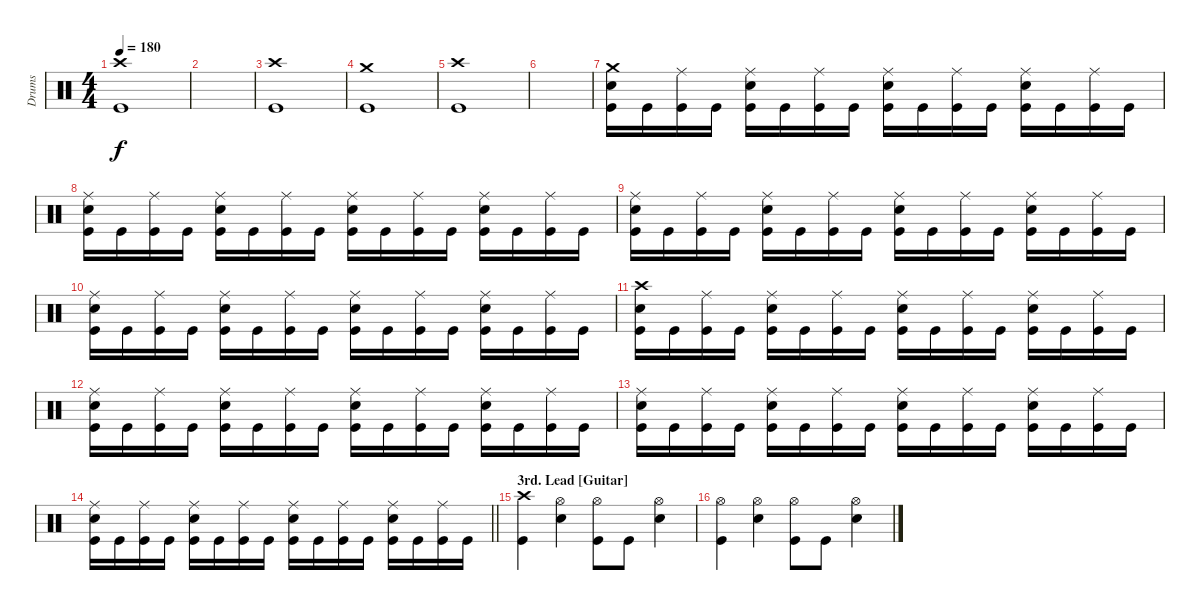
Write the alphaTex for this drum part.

\track ("Drums" "Drums") {instrument percussion}
\staff {score}
\articulation defaults
\ts (4 4)
\tempo 180
\clef neutral
\ks c
("Crash high (hit)" "Kick (hit)").1{dy f} |
|
("Crash high (hit)" "Kick (hit)").1 |
("Crash medium (hit)" "Kick (hit)").1 |
("Crash high (hit)" "Kick (hit)").1 |
|
("Crash medium (hit)" "Electric Snare (hit)" "Kick (hit)").16 "Kick (hit)".16 ("Ride (middle)" "Kick (hit)").16 "Kick (hit)".16 ("Ride (middle)" "Electric Snare (hit)" "Kick (hit)").16 "Kick (hit)".16 ("Ride (middle)" "Kick (hit)").16 "Kick (hit)".16 ("Ride (middle)" "Electric Snare (hit)" "Kick (hit)").16 "Kick (hit)".16 ("Ride (middle)" "Kick (hit)").16 "Kick (hit)".16 ("Ride (middle)" "Electric Snare (hit)" "Kick (hit)").16 "Kick (hit)".16 ("Ride (middle)" "Kick (hit)").16 "Kick (hit)".16 |
("Ride (middle)" "Electric Snare (hit)" "Kick (hit)").16 "Kick (hit)".16 ("Ride (middle)" "Kick (hit)").16 "Kick (hit)".16 ("Ride (middle)" "Electric Snare (hit)" "Kick (hit)").16 "Kick (hit)".16 ("Ride (middle)" "Kick (hit)").16 "Kick (hit)".16 ("Ride (middle)" "Electric Snare (hit)" "Kick (hit)").16 "Kick (hit)".16 ("Ride (middle)" "Kick (hit)").16 "Kick (hit)".16 ("Ride (middle)" "Electric Snare (hit)" "Kick (hit)").16 "Kick (hit)".16 ("Ride (middle)" "Kick (hit)").16 "Kick (hit)".16 |
("Ride (middle)" "Electric Snare (hit)" "Kick (hit)").16 "Kick (hit)".16 ("Ride (middle)" "Kick (hit)").16 "Kick (hit)".16 ("Ride (middle)" "Electric Snare (hit)" "Kick (hit)").16 "Kick (hit)".16 ("Ride (middle)" "Kick (hit)").16 "Kick (hit)".16 ("Ride (middle)" "Electric Snare (hit)" "Kick (hit)").16 "Kick (hit)".16 ("Ride (middle)" "Kick (hit)").16 "Kick (hit)".16 ("Ride (middle)" "Electric Snare (hit)" "Kick (hit)").16 "Kick (hit)".16 ("Ride (middle)" "Kick (hit)").16 "Kick (hit)".16 |
("Ride (middle)" "Electric Snare (hit)" "Kick (hit)").16 "Kick (hit)".16 ("Ride (middle)" "Kick (hit)").16 "Kick (hit)".16 ("Ride (middle)" "Electric Snare (hit)" "Kick (hit)").16 "Kick (hit)".16 ("Ride (middle)" "Kick (hit)").16 "Kick (hit)".16 ("Ride (middle)" "Electric Snare (hit)" "Kick (hit)").16 "Kick (hit)".16 ("Ride (middle)" "Kick (hit)").16 "Kick (hit)".16 ("Ride (middle)" "Electric Snare (hit)" "Kick (hit)").16 "Kick (hit)".16 ("Ride (middle)" "Kick (hit)").16 "Kick (hit)".16 |
("Crash high (hit)" "Electric Snare (hit)" "Kick (hit)").16 "Kick (hit)".16 ("Ride (middle)" "Kick (hit)").16 "Kick (hit)".16 ("Ride (middle)" "Electric Snare (hit)" "Kick (hit)").16 "Kick (hit)".16 ("Ride (middle)" "Kick (hit)").16 "Kick (hit)".16 ("Ride (middle)" "Electric Snare (hit)" "Kick (hit)").16 "Kick (hit)".16 ("Ride (middle)" "Kick (hit)").16 "Kick (hit)".16 ("Ride (middle)" "Electric Snare (hit)" "Kick (hit)").16 "Kick (hit)".16 ("Ride (middle)" "Kick (hit)").16 "Kick (hit)".16 |
("Ride (middle)" "Electric Snare (hit)" "Kick (hit)").16 "Kick (hit)".16 ("Ride (middle)" "Kick (hit)").16 "Kick (hit)".16 ("Ride (middle)" "Electric Snare (hit)" "Kick (hit)").16 "Kick (hit)".16 ("Ride (middle)" "Kick (hit)").16 "Kick (hit)".16 ("Ride (middle)" "Electric Snare (hit)" "Kick (hit)").16 "Kick (hit)".16 ("Ride (middle)" "Kick (hit)").16 "Kick (hit)".16 ("Ride (middle)" "Electric Snare (hit)" "Kick (hit)").16 "Kick (hit)".16 ("Ride (middle)" "Kick (hit)").16 "Kick (hit)".16 |
("Ride (middle)" "Electric Snare (hit)" "Kick (hit)").16 "Kick (hit)".16 ("Ride (middle)" "Kick (hit)").16 "Kick (hit)".16 ("Ride (middle)" "Electric Snare (hit)" "Kick (hit)").16 "Kick (hit)".16 ("Ride (middle)" "Kick (hit)").16 "Kick (hit)".16 ("Ride (middle)" "Electric Snare (hit)" "Kick (hit)").16 "Kick (hit)".16 ("Ride (middle)" "Kick (hit)").16 "Kick (hit)".16 ("Ride (middle)" "Electric Snare (hit)" "Kick (hit)").16 "Kick (hit)".16 ("Ride (middle)" "Kick (hit)").16 "Kick (hit)".16 |
\barLineRight lightlight
("Ride (middle)" "Electric Snare (hit)" "Kick (hit)").16 "Kick (hit)".16 ("Ride (middle)" "Kick (hit)").16 "Kick (hit)".16 ("Ride (middle)" "Electric Snare (hit)" "Kick (hit)").16 "Kick (hit)".16 ("Ride (middle)" "Kick (hit)").16 "Kick (hit)".16 ("Ride (middle)" "Electric Snare (hit)" "Kick (hit)").16 "Kick (hit)".16 ("Ride (middle)" "Kick (hit)").16 "Kick (hit)".16 ("Ride (middle)" "Electric Snare (hit)" "Kick (hit)").16 "Kick (hit)".16 ("Ride (middle)" "Kick (hit)").16 "Kick (hit)".16 |
\section ("" "3rd. Lead [Guitar]")
("Crash high (hit)" "Kick (hit)").4 ("Hi-Hat (open)" "Electric Snare (hit)").4 ("Hi-Hat (open)" "Kick (hit)").8 "Kick (hit)".8 ("Hi-Hat (open)" "Electric Snare (hit)").4 |
("Hi-Hat (open)" "Kick (hit)").4 ("Hi-Hat (open)" "Electric Snare (hit)").4 ("Hi-Hat (open)" "Kick (hit)").8 "Kick (hit)".8 ("Hi-Hat (open)" "Electric Snare (hit)").4
